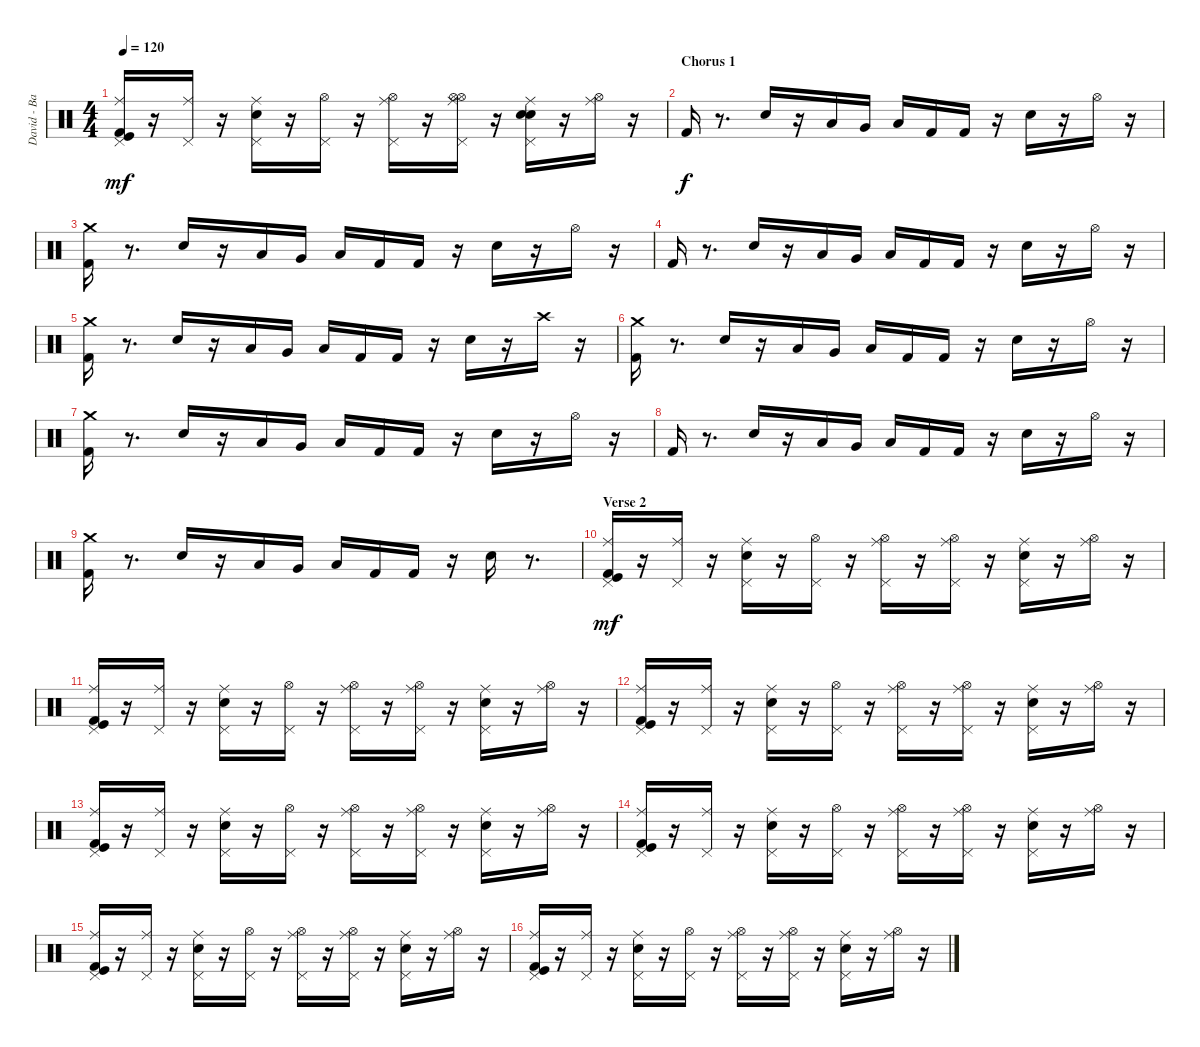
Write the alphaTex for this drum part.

\track ("David - Batterie" "David - Ba") {instrument percussion}
\staff {score}
\articulation defaults
\ts (4 4)
\tempo 120
\clef neutral
\ks c
("Kick (hit)" "Kick (hit) 2" "Ride (middle)" "Pedal Hi-Hat (hit)").16{dy mf} r.16 ("Ride (middle)" "Pedal Hi-Hat (hit)").16 r.16 ("Electric Snare (hit)" "Ride (middle)" "Pedal Hi-Hat (hit)").16 r.16 ("Hi-Hat (open)" "Pedal Hi-Hat (hit)").16 r.16 ("Ride (middle)" "Hi-Hat (open)" "Pedal Hi-Hat (hit)").16 r.16 ("Hi-Hat (open)" "Ride (middle)" "Hi-Hat (open)" "Pedal Hi-Hat (hit)").16 r.16 ("Electric Snare (hit)" "Electric Snare (hit)" "Ride (middle)" "Pedal Hi-Hat (hit)").16 r.16 ("Ride (middle)" "Hi-Hat (open)").16 r.16 |
\section ("" "Chorus 1")
"Kick (hit) 2".16{dy f} r.8{d} "Electric Snare (hit)".16 r.16 "Low Tom (hit)".16 "Very Low Tom (hit)".16 "Low Floor Tom (hit)".16 "Kick (hit) 2".16 "Kick (hit) 2".16 r.16 "Electric Snare (hit)".16 r.16 "Hi-Hat (open)".16 r.16 |
("Kick (hit) 2" "Crash medium (hit)").16 r.8{d} "Electric Snare (hit)".16 r.16 "Low Tom (hit)".16 "Very Low Tom (hit)".16 "Low Floor Tom (hit)".16 "Kick (hit) 2".16 "Kick (hit) 2".16 r.16 "Electric Snare (hit)".16 r.16 "Hi-Hat (open)".16 r.16 |
"Kick (hit) 2".16 r.8{d} "Electric Snare (hit)".16 r.16 "Low Tom (hit)".16 "Very Low Tom (hit)".16 "Low Floor Tom (hit)".16 "Kick (hit) 2".16 "Kick (hit) 2".16 r.16 "Electric Snare (hit)".16 r.16 "Hi-Hat (open)".16 r.16 |
("Crash medium (hit)" "Kick (hit) 2").16 r.8{d} "Electric Snare (hit)".16 r.16 "Low Tom (hit)".16 "Very Low Tom (hit)".16 "Low Floor Tom (hit)".16 "Kick (hit) 2".16 "Kick (hit) 2".16 r.16 "Electric Snare (hit)".16 r.16 "Crash high (hit)".16 r.16 |
("Kick (hit) 2" "Crash medium (hit)").16 r.8{d} "Electric Snare (hit)".16 r.16 "Low Tom (hit)".16 "Very Low Tom (hit)".16 "Low Floor Tom (hit)".16 "Kick (hit) 2".16 "Kick (hit) 2".16 r.16 "Electric Snare (hit)".16 r.16 "Hi-Hat (open)".16 r.16 |
("Crash medium (hit)" "Kick (hit) 2").16 r.8{d} "Electric Snare (hit)".16 r.16 "Low Tom (hit)".16 "Very Low Tom (hit)".16 "Low Floor Tom (hit)".16 "Kick (hit) 2".16 "Kick (hit) 2".16 r.16 "Electric Snare (hit)".16 r.16 "Hi-Hat (open)".16 r.16 |
"Kick (hit) 2".16 r.8{d} "Electric Snare (hit)".16 r.16 "Low Tom (hit)".16 "Very Low Tom (hit)".16 "Low Floor Tom (hit)".16 "Kick (hit) 2".16 "Kick (hit) 2".16 r.16 "Electric Snare (hit)".16 r.16 "Hi-Hat (open)".16 r.16 |
("Kick (hit) 2" "Crash medium (hit)").16 r.8{d} "Electric Snare (hit)".16 r.16 "Low Tom (hit)".16 "Very Low Tom (hit)".16 "Low Floor Tom (hit)".16 "Kick (hit) 2".16 "Kick (hit) 2".16 r.16 "Electric Snare (hit)".16 r.8{d} |
\section ("" "Verse 2")
("Pedal Hi-Hat (hit)" "Ride (middle)" "Kick (hit) 2" "Kick (hit)").16{dy mf} r.16 ("Pedal Hi-Hat (hit)" "Ride (middle)").16 r.16 ("Pedal Hi-Hat (hit)" "Ride (middle)" "Electric Snare (hit)").16 r.16 ("Pedal Hi-Hat (hit)" "Hi-Hat (open)").16 r.16 ("Pedal Hi-Hat (hit)" "Hi-Hat (open)" "Ride (middle)").16 r.16 ("Pedal Hi-Hat (hit)" "Hi-Hat (open)" "Ride (middle)").16 r.16 ("Pedal Hi-Hat (hit)" "Ride (middle)" "Electric Snare (hit)").16 r.16 ("Hi-Hat (open)" "Ride (middle)").16 r.16 |
("Kick (hit)" "Kick (hit) 2" "Ride (middle)" "Pedal Hi-Hat (hit)").16 r.16 ("Ride (middle)" "Pedal Hi-Hat (hit)").16 r.16 ("Electric Snare (hit)" "Ride (middle)" "Pedal Hi-Hat (hit)").16 r.16 ("Hi-Hat (open)" "Pedal Hi-Hat (hit)").16 r.16 ("Ride (middle)" "Hi-Hat (open)" "Pedal Hi-Hat (hit)").16 r.16 ("Ride (middle)" "Hi-Hat (open)" "Pedal Hi-Hat (hit)").16 r.16 ("Electric Snare (hit)" "Ride (middle)" "Pedal Hi-Hat (hit)").16 r.16 ("Ride (middle)" "Hi-Hat (open)").16 r.16 |
("Kick (hit)" "Kick (hit) 2" "Ride (middle)" "Pedal Hi-Hat (hit)").16 r.16 ("Ride (middle)" "Pedal Hi-Hat (hit)").16 r.16 ("Electric Snare (hit)" "Ride (middle)" "Pedal Hi-Hat (hit)").16 r.16 ("Hi-Hat (open)" "Pedal Hi-Hat (hit)").16 r.16 ("Ride (middle)" "Hi-Hat (open)" "Pedal Hi-Hat (hit)").16 r.16 ("Ride (middle)" "Hi-Hat (open)" "Pedal Hi-Hat (hit)").16 r.16 ("Electric Snare (hit)" "Ride (middle)" "Pedal Hi-Hat (hit)").16 r.16 ("Ride (middle)" "Hi-Hat (open)").16 r.16 |
("Pedal Hi-Hat (hit)" "Ride (middle)" "Kick (hit) 2" "Kick (hit)").16 r.16 ("Pedal Hi-Hat (hit)" "Ride (middle)").16 r.16 ("Pedal Hi-Hat (hit)" "Ride (middle)" "Electric Snare (hit)").16 r.16 ("Pedal Hi-Hat (hit)" "Hi-Hat (open)").16 r.16 ("Pedal Hi-Hat (hit)" "Hi-Hat (open)" "Ride (middle)").16 r.16 ("Pedal Hi-Hat (hit)" "Hi-Hat (open)" "Ride (middle)").16 r.16 ("Pedal Hi-Hat (hit)" "Ride (middle)" "Electric Snare (hit)").16 r.16 ("Hi-Hat (open)" "Ride (middle)").16 r.16 |
("Kick (hit)" "Kick (hit) 2" "Ride (middle)" "Pedal Hi-Hat (hit)").16 r.16 ("Ride (middle)" "Pedal Hi-Hat (hit)").16 r.16 ("Electric Snare (hit)" "Ride (middle)" "Pedal Hi-Hat (hit)").16 r.16 ("Hi-Hat (open)" "Pedal Hi-Hat (hit)").16 r.16 ("Ride (middle)" "Hi-Hat (open)" "Pedal Hi-Hat (hit)").16 r.16 ("Ride (middle)" "Hi-Hat (open)" "Pedal Hi-Hat (hit)").16 r.16 ("Electric Snare (hit)" "Ride (middle)" "Pedal Hi-Hat (hit)").16 r.16 ("Ride (middle)" "Hi-Hat (open)").16 r.16 |
("Pedal Hi-Hat (hit)" "Ride (middle)" "Kick (hit) 2" "Kick (hit)").16 r.16 ("Pedal Hi-Hat (hit)" "Ride (middle)").16 r.16 ("Pedal Hi-Hat (hit)" "Ride (middle)" "Electric Snare (hit)").16 r.16 ("Pedal Hi-Hat (hit)" "Hi-Hat (open)").16 r.16 ("Pedal Hi-Hat (hit)" "Hi-Hat (open)" "Ride (middle)").16 r.16 ("Pedal Hi-Hat (hit)" "Hi-Hat (open)" "Ride (middle)").16 r.16 ("Pedal Hi-Hat (hit)" "Ride (middle)" "Electric Snare (hit)").16 r.16 ("Hi-Hat (open)" "Ride (middle)").16 r.16 |
("Pedal Hi-Hat (hit)" "Ride (middle)" "Kick (hit) 2" "Kick (hit)").16 r.16 ("Pedal Hi-Hat (hit)" "Ride (middle)").16 r.16 ("Pedal Hi-Hat (hit)" "Ride (middle)" "Electric Snare (hit)").16 r.16 ("Pedal Hi-Hat (hit)" "Hi-Hat (open)").16 r.16 ("Pedal Hi-Hat (hit)" "Hi-Hat (open)" "Ride (middle)").16 r.16 ("Pedal Hi-Hat (hit)" "Hi-Hat (open)" "Ride (middle)").16 r.16 ("Pedal Hi-Hat (hit)" "Ride (middle)" "Electric Snare (hit)").16 r.16 ("Hi-Hat (open)" "Ride (middle)").16 r.16
